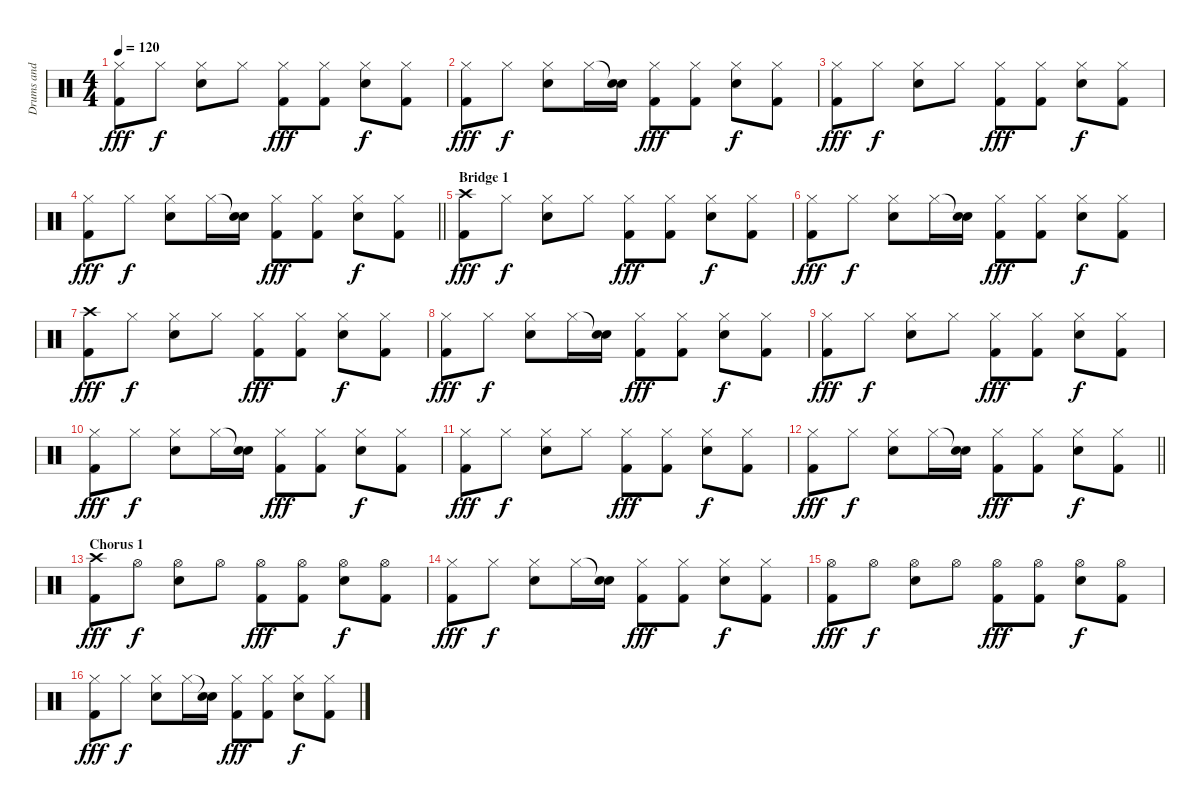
\track ("Drums and Percussion" "Drums and ") {instrument percussion}
\staff {score}
\articulation defaults
\ts (4 4)
\tempo 120
\clef neutral
\ks c
("Hi-Hat (closed)" "Kick (hit) 2").8{dy fff} "Hi-Hat (closed)".8{dy f} ("Hi-Hat (closed)" "Snare (hit) 2").8 "Hi-Hat (closed)".8 ("Hi-Hat (closed)" "Kick (hit) 2").8{dy fff} ("Hi-Hat (closed)" "Kick (hit) 2").8 ("Hi-Hat (closed)" "Snare (hit) 2").8{dy f} ("Hi-Hat (closed)" "Kick (hit) 2").8 |
("Hi-Hat (closed)" "Kick (hit) 2").8{dy fff} "Hi-Hat (closed)".8{dy f} ("Hi-Hat (closed)" "Snare (hit) 2").8 "Hi-Hat (closed)".16 ("Snare (hit)"{t} "Snare (hit) 2").16 ("Hi-Hat (closed)" "Kick (hit) 2").8{dy fff} ("Hi-Hat (closed)" "Kick (hit) 2").8 ("Hi-Hat (closed)" "Snare (hit) 2").8{dy f} ("Hi-Hat (closed)" "Kick (hit) 2").8 |
("Hi-Hat (closed)" "Kick (hit) 2").8{dy fff} "Hi-Hat (closed)".8{dy f} ("Hi-Hat (closed)" "Snare (hit) 2").8 "Hi-Hat (closed)".8 ("Hi-Hat (closed)" "Kick (hit) 2").8{dy fff} ("Hi-Hat (closed)" "Kick (hit) 2").8 ("Hi-Hat (closed)" "Snare (hit) 2").8{dy f} ("Hi-Hat (closed)" "Kick (hit) 2").8 |
\barLineRight lightlight
("Hi-Hat (closed)" "Kick (hit) 2").8{dy fff} "Hi-Hat (closed)".8{dy f} ("Hi-Hat (closed)" "Snare (hit) 2").8 "Hi-Hat (closed)".16 ("Snare (hit)"{t} "Snare (hit) 2").16 ("Hi-Hat (closed)" "Kick (hit) 2").8{dy fff} ("Hi-Hat (closed)" "Kick (hit) 2").8 ("Hi-Hat (closed)" "Snare (hit) 2").8{dy f} ("Hi-Hat (closed)" "Kick (hit) 2").8 |
\section ("" "Bridge 1")
("Crash high (hit)" "Kick (hit) 2").8{dy fff} "Hi-Hat (closed)".8{dy f} ("Hi-Hat (closed)" "Snare (hit) 2").8 "Hi-Hat (closed)".8 ("Hi-Hat (closed)" "Kick (hit) 2").8{dy fff} ("Hi-Hat (closed)" "Kick (hit) 2").8 ("Hi-Hat (closed)" "Snare (hit) 2").8{dy f} ("Hi-Hat (closed)" "Kick (hit) 2").8 |
("Hi-Hat (closed)" "Kick (hit) 2").8{dy fff} "Hi-Hat (closed)".8{dy f} ("Hi-Hat (closed)" "Snare (hit) 2").8 "Hi-Hat (closed)".16 ("Snare (hit)"{t} "Snare (hit) 2").16 ("Hi-Hat (closed)" "Kick (hit) 2").8{dy fff} ("Hi-Hat (closed)" "Kick (hit) 2").8 ("Hi-Hat (closed)" "Snare (hit) 2").8{dy f} ("Hi-Hat (closed)" "Kick (hit) 2").8 |
("Crash high (hit)" "Kick (hit) 2").8{dy fff} "Hi-Hat (closed)".8{dy f} ("Hi-Hat (closed)" "Snare (hit) 2").8 "Hi-Hat (closed)".8 ("Hi-Hat (closed)" "Kick (hit) 2").8{dy fff} ("Hi-Hat (closed)" "Kick (hit) 2").8 ("Hi-Hat (closed)" "Snare (hit) 2").8{dy f} ("Hi-Hat (closed)" "Kick (hit) 2").8 |
("Hi-Hat (closed)" "Kick (hit) 2").8{dy fff} "Hi-Hat (closed)".8{dy f} ("Hi-Hat (closed)" "Snare (hit) 2").8 "Hi-Hat (closed)".16 ("Snare (hit)"{t} "Snare (hit) 2").16 ("Hi-Hat (closed)" "Kick (hit) 2").8{dy fff} ("Hi-Hat (closed)" "Kick (hit) 2").8 ("Hi-Hat (closed)" "Snare (hit) 2").8{dy f} ("Hi-Hat (closed)" "Kick (hit) 2").8 |
("Hi-Hat (closed)" "Kick (hit) 2").8{dy fff} "Hi-Hat (closed)".8{dy f} ("Hi-Hat (closed)" "Snare (hit) 2").8 "Hi-Hat (closed)".8 ("Hi-Hat (closed)" "Kick (hit) 2").8{dy fff} ("Hi-Hat (closed)" "Kick (hit) 2").8 ("Hi-Hat (closed)" "Snare (hit) 2").8{dy f} ("Hi-Hat (closed)" "Kick (hit) 2").8 |
("Hi-Hat (closed)" "Kick (hit) 2").8{dy fff} "Hi-Hat (closed)".8{dy f} ("Hi-Hat (closed)" "Snare (hit) 2").8 "Hi-Hat (closed)".16 ("Snare (hit)"{t} "Snare (hit) 2").16 ("Hi-Hat (closed)" "Kick (hit) 2").8{dy fff} ("Hi-Hat (closed)" "Kick (hit) 2").8 ("Hi-Hat (closed)" "Snare (hit) 2").8{dy f} ("Hi-Hat (closed)" "Kick (hit) 2").8 |
("Hi-Hat (closed)" "Kick (hit) 2").8{dy fff} "Hi-Hat (closed)".8{dy f} ("Hi-Hat (closed)" "Snare (hit) 2").8 "Hi-Hat (closed)".8 ("Hi-Hat (closed)" "Kick (hit) 2").8{dy fff} ("Hi-Hat (closed)" "Kick (hit) 2").8 ("Hi-Hat (closed)" "Snare (hit) 2").8{dy f} ("Hi-Hat (closed)" "Kick (hit) 2").8 |
\barLineRight lightlight
("Hi-Hat (closed)" "Kick (hit) 2").8{dy fff} "Hi-Hat (closed)".8{dy f} ("Hi-Hat (closed)" "Snare (hit) 2").8 "Hi-Hat (closed)".16 ("Snare (hit)"{t} "Snare (hit) 2").16 ("Hi-Hat (closed)" "Kick (hit) 2").8{dy fff} ("Hi-Hat (closed)" "Kick (hit) 2").8 ("Hi-Hat (closed)" "Snare (hit) 2").8{dy f} ("Hi-Hat (closed)" "Kick (hit) 2").8 |
\section ("" "Chorus 1")
("Crash high (hit)" "Kick (hit) 2").8{dy fff} "Hi-Hat (open)".8{dy f} ("Hi-Hat (open)" "Snare (hit) 2").8 "Hi-Hat (open)".8 ("Hi-Hat (open)" "Kick (hit) 2").8{dy fff} ("Hi-Hat (open)" "Kick (hit) 2").8 ("Hi-Hat (open)" "Snare (hit) 2").8{dy f} ("Hi-Hat (open)" "Kick (hit) 2").8 |
("Hi-Hat (closed)" "Kick (hit) 2").8{dy fff} "Hi-Hat (closed)".8{dy f} ("Hi-Hat (closed)" "Snare (hit) 2").8 "Hi-Hat (closed)".16 ("Snare (hit)"{t} "Snare (hit) 2").16 ("Hi-Hat (closed)" "Kick (hit) 2").8{dy fff} ("Hi-Hat (closed)" "Kick (hit) 2").8 ("Hi-Hat (closed)" "Snare (hit) 2").8{dy f} ("Hi-Hat (closed)" "Kick (hit) 2").8 |
("Hi-Hat (open)" "Kick (hit) 2").8{dy fff} "Hi-Hat (open)".8{dy f} ("Hi-Hat (open)" "Snare (hit) 2").8 "Hi-Hat (open)".8 ("Hi-Hat (open)" "Kick (hit) 2").8{dy fff} ("Hi-Hat (open)" "Kick (hit) 2").8 ("Hi-Hat (open)" "Snare (hit) 2").8{dy f} ("Hi-Hat (open)" "Kick (hit) 2").8 |
("Hi-Hat (closed)" "Kick (hit) 2").8{dy fff} "Hi-Hat (closed)".8{dy f} ("Hi-Hat (closed)" "Snare (hit) 2").8 "Hi-Hat (closed)".16 ("Snare (hit)"{t} "Snare (hit) 2").16 ("Hi-Hat (closed)" "Kick (hit) 2").8{dy fff} ("Hi-Hat (closed)" "Kick (hit) 2").8 ("Hi-Hat (closed)" "Snare (hit) 2").8{dy f} ("Hi-Hat (closed)" "Kick (hit) 2").8
